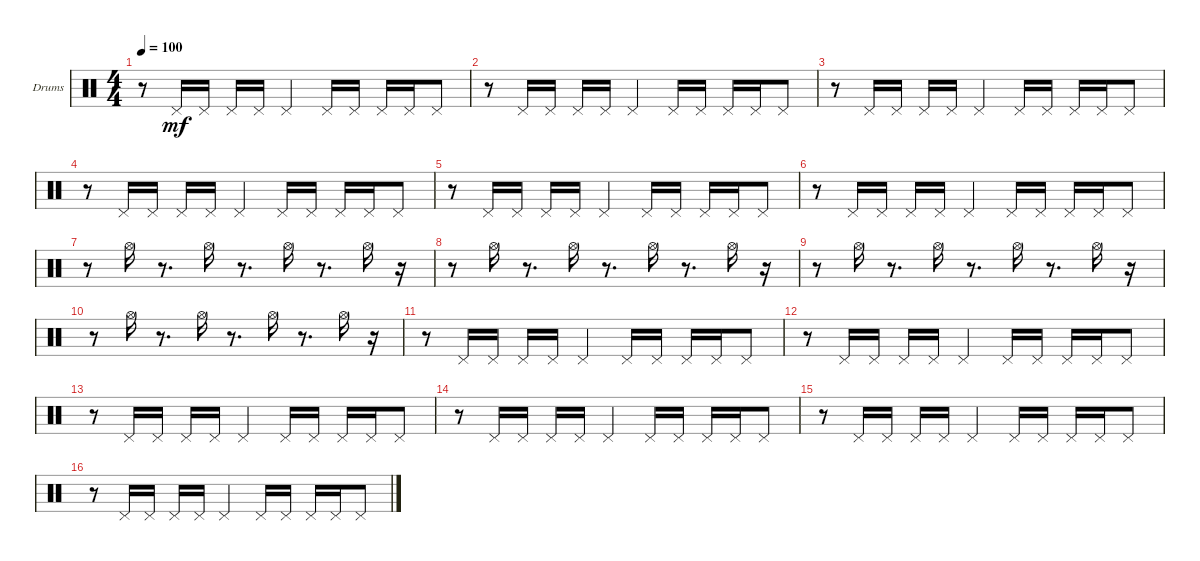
\bracketExtendMode groupsimilarinstruments
\firstSystemTrackNameOrientation horizontal
\otherSystemsTrackNameOrientation horizontal
\track ("Treble Percussion" "Drums") {instrument percussion}
\staff {score}
\articulation defaults
\ts (4 4)
\tempo 100
\clef neutral
\ks c
r.8{dy mf} "Pedal Hi-Hat (hit)".16 "Pedal Hi-Hat (hit)".16 "Pedal Hi-Hat (hit)".16 "Pedal Hi-Hat (hit)".16 "Pedal Hi-Hat (hit)".4 "Pedal Hi-Hat (hit)".16 "Pedal Hi-Hat (hit)".16 "Pedal Hi-Hat (hit)".16 "Pedal Hi-Hat (hit)".16 "Pedal Hi-Hat (hit)".8 |
r.8 "Pedal Hi-Hat (hit)".16 "Pedal Hi-Hat (hit)".16 "Pedal Hi-Hat (hit)".16 "Pedal Hi-Hat (hit)".16 "Pedal Hi-Hat (hit)".4 "Pedal Hi-Hat (hit)".16 "Pedal Hi-Hat (hit)".16 "Pedal Hi-Hat (hit)".16 "Pedal Hi-Hat (hit)".16 "Pedal Hi-Hat (hit)".8 |
r.8 "Pedal Hi-Hat (hit)".16 "Pedal Hi-Hat (hit)".16 "Pedal Hi-Hat (hit)".16 "Pedal Hi-Hat (hit)".16 "Pedal Hi-Hat (hit)".4 "Pedal Hi-Hat (hit)".16 "Pedal Hi-Hat (hit)".16 "Pedal Hi-Hat (hit)".16 "Pedal Hi-Hat (hit)".16 "Pedal Hi-Hat (hit)".8 |
r.8 "Pedal Hi-Hat (hit)".16 "Pedal Hi-Hat (hit)".16 "Pedal Hi-Hat (hit)".16 "Pedal Hi-Hat (hit)".16 "Pedal Hi-Hat (hit)".4 "Pedal Hi-Hat (hit)".16 "Pedal Hi-Hat (hit)".16 "Pedal Hi-Hat (hit)".16 "Pedal Hi-Hat (hit)".16 "Pedal Hi-Hat (hit)".8 |
r.8 "Pedal Hi-Hat (hit)".16 "Pedal Hi-Hat (hit)".16 "Pedal Hi-Hat (hit)".16 "Pedal Hi-Hat (hit)".16 "Pedal Hi-Hat (hit)".4 "Pedal Hi-Hat (hit)".16 "Pedal Hi-Hat (hit)".16 "Pedal Hi-Hat (hit)".16 "Pedal Hi-Hat (hit)".16 "Pedal Hi-Hat (hit)".8 |
r.8 "Pedal Hi-Hat (hit)".16 "Pedal Hi-Hat (hit)".16 "Pedal Hi-Hat (hit)".16 "Pedal Hi-Hat (hit)".16 "Pedal Hi-Hat (hit)".4 "Pedal Hi-Hat (hit)".16 "Pedal Hi-Hat (hit)".16 "Pedal Hi-Hat (hit)".16 "Pedal Hi-Hat (hit)".16 "Pedal Hi-Hat (hit)".8 |
r.8 "Hi-Hat (open)".16 r.8{d} "Hi-Hat (open)".16 r.8{d} "Hi-Hat (open)".16 r.8{d} "Hi-Hat (open)".16 r.16 |
r.8 "Hi-Hat (open)".16 r.8{d} "Hi-Hat (open)".16 r.8{d} "Hi-Hat (open)".16 r.8{d} "Hi-Hat (open)".16 r.16 |
r.8 "Hi-Hat (open)".16 r.8{d} "Hi-Hat (open)".16 r.8{d} "Hi-Hat (open)".16 r.8{d} "Hi-Hat (open)".16 r.16 |
r.8 "Hi-Hat (open)".16 r.8{d} "Hi-Hat (open)".16 r.8{d} "Hi-Hat (open)".16 r.8{d} "Hi-Hat (open)".16 r.16 |
r.8 "Pedal Hi-Hat (hit)".16 "Pedal Hi-Hat (hit)".16 "Pedal Hi-Hat (hit)".16 "Pedal Hi-Hat (hit)".16 "Pedal Hi-Hat (hit)".4 "Pedal Hi-Hat (hit)".16 "Pedal Hi-Hat (hit)".16 "Pedal Hi-Hat (hit)".16 "Pedal Hi-Hat (hit)".16 "Pedal Hi-Hat (hit)".8 |
r.8 "Pedal Hi-Hat (hit)".16 "Pedal Hi-Hat (hit)".16 "Pedal Hi-Hat (hit)".16 "Pedal Hi-Hat (hit)".16 "Pedal Hi-Hat (hit)".4 "Pedal Hi-Hat (hit)".16 "Pedal Hi-Hat (hit)".16 "Pedal Hi-Hat (hit)".16 "Pedal Hi-Hat (hit)".16 "Pedal Hi-Hat (hit)".8 |
r.8 "Pedal Hi-Hat (hit)".16 "Pedal Hi-Hat (hit)".16 "Pedal Hi-Hat (hit)".16 "Pedal Hi-Hat (hit)".16 "Pedal Hi-Hat (hit)".4 "Pedal Hi-Hat (hit)".16 "Pedal Hi-Hat (hit)".16 "Pedal Hi-Hat (hit)".16 "Pedal Hi-Hat (hit)".16 "Pedal Hi-Hat (hit)".8 |
r.8 "Pedal Hi-Hat (hit)".16 "Pedal Hi-Hat (hit)".16 "Pedal Hi-Hat (hit)".16 "Pedal Hi-Hat (hit)".16 "Pedal Hi-Hat (hit)".4 "Pedal Hi-Hat (hit)".16 "Pedal Hi-Hat (hit)".16 "Pedal Hi-Hat (hit)".16 "Pedal Hi-Hat (hit)".16 "Pedal Hi-Hat (hit)".8 |
r.8 "Pedal Hi-Hat (hit)".16 "Pedal Hi-Hat (hit)".16 "Pedal Hi-Hat (hit)".16 "Pedal Hi-Hat (hit)".16 "Pedal Hi-Hat (hit)".4 "Pedal Hi-Hat (hit)".16 "Pedal Hi-Hat (hit)".16 "Pedal Hi-Hat (hit)".16 "Pedal Hi-Hat (hit)".16 "Pedal Hi-Hat (hit)".8 |
r.8 "Pedal Hi-Hat (hit)".16 "Pedal Hi-Hat (hit)".16 "Pedal Hi-Hat (hit)".16 "Pedal Hi-Hat (hit)".16 "Pedal Hi-Hat (hit)".4 "Pedal Hi-Hat (hit)".16 "Pedal Hi-Hat (hit)".16 "Pedal Hi-Hat (hit)".16 "Pedal Hi-Hat (hit)".16 "Pedal Hi-Hat (hit)".8
